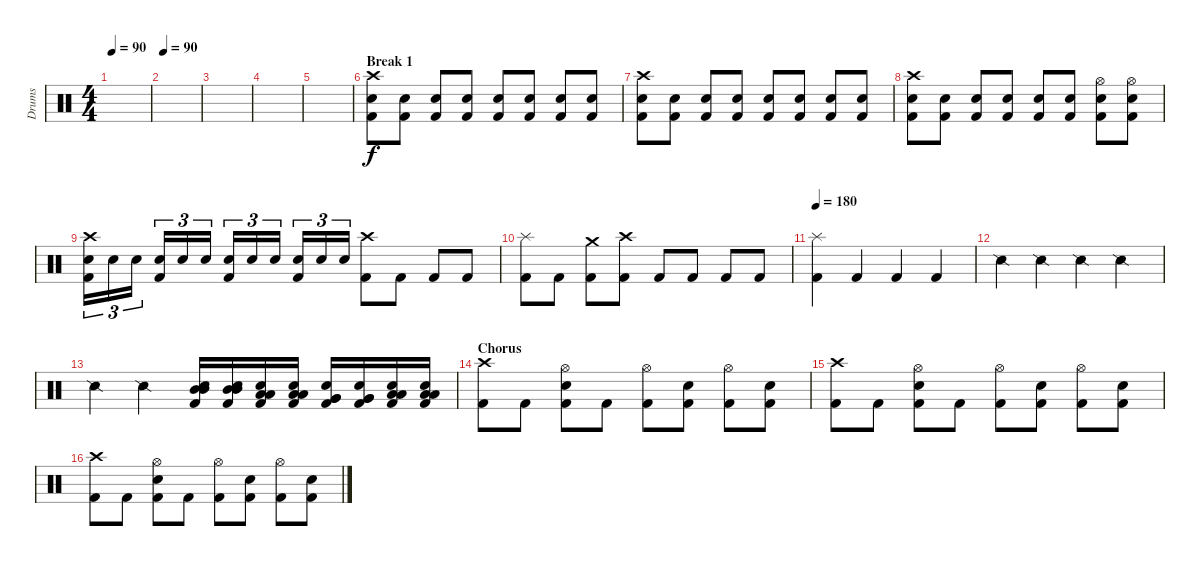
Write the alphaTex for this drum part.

\track ("Drums" "Drums") {instrument percussion}
\staff {score}
\articulation defaults
\ts (4 4)
\tempo 90
\clef neutral
\ks c
|
\tempo 90
|
|
|
|
\section ("" "Break 1")
("Crash high (hit)" "Kick (hit) 2" "Electric Snare (hit)").8 ("Kick (hit) 2" "Electric Snare (hit)").8 ("Kick (hit) 2" "Electric Snare (hit)").8 ("Kick (hit) 2" "Electric Snare (hit)").8 ("Kick (hit) 2" "Electric Snare (hit)").8 ("Kick (hit) 2" "Electric Snare (hit)").8 ("Kick (hit) 2" "Electric Snare (hit)").8 ("Kick (hit) 2" "Electric Snare (hit)").8 |
("Crash high (hit)" "Kick (hit) 2" "Electric Snare (hit)").8 ("Kick (hit) 2" "Electric Snare (hit)").8 ("Kick (hit) 2" "Electric Snare (hit)").8 ("Kick (hit) 2" "Electric Snare (hit)").8 ("Kick (hit) 2" "Electric Snare (hit)").8 ("Kick (hit) 2" "Electric Snare (hit)").8 ("Kick (hit) 2" "Electric Snare (hit)").8 ("Kick (hit) 2" "Electric Snare (hit)").8 |
("Crash high (hit)" "Kick (hit) 2" "Electric Snare (hit)").8 ("Kick (hit) 2" "Electric Snare (hit)").8 ("Kick (hit) 2" "Electric Snare (hit)").8 ("Kick (hit) 2" "Electric Snare (hit)").8 ("Kick (hit) 2" "Electric Snare (hit)").8 ("Kick (hit) 2" "Electric Snare (hit)").8 ("Hi-Hat (open)" "Kick (hit) 2" "Electric Snare (hit)").8 ("Hi-Hat (open)" "Kick (hit) 2" "Electric Snare (hit)").8 |
("Crash high (hit)" "Kick (hit) 2" "Electric Snare (hit)").16{tu (3 2)} "Electric Snare (hit)".16{tu (3 2)} "Electric Snare (hit)".16{tu (3 2)} ("Kick (hit) 2" "Electric Snare (hit)").16{tu (3 2)} "Electric Snare (hit)".16{tu (3 2)} "Electric Snare (hit)".16{tu (3 2)} ("Kick (hit) 2" "Electric Snare (hit)").16{tu (3 2)} "Electric Snare (hit)".16{tu (3 2)} "Electric Snare (hit)".16{tu (3 2)} ("Kick (hit) 2" "Electric Snare (hit)").16{tu (3 2)} "Electric Snare (hit)".16{tu (3 2)} "Electric Snare (hit)".16{tu (3 2)} ("Crash high (hit)" "Kick (hit) 2").8 "Kick (hit) 2".8 "Kick (hit) 2".8 "Kick (hit) 2".8 |
("Splash (hit)" "Kick (hit) 2").8 "Kick (hit) 2".8 ("Crash medium (hit)" "Kick (hit) 2").8 ("Crash high (hit)" "Kick (hit) 2").8 "Kick (hit) 2".8 "Kick (hit) 2".8 "Kick (hit) 2".8 "Kick (hit) 2".8 |
\tempo 180
("Splash (hit)" "Kick (hit) 2").4 "Kick (hit) 2".4 "Kick (hit) 2".4 "Kick (hit) 2".4 |
"Snare (side stick) 2".4 "Snare (side stick) 2".4 "Snare (side stick) 2".4 "Snare (side stick) 2".4 |
"Snare (side stick) 2".4 "Snare (side stick) 2".4 ("Mid Tom (hit)" "Mid Tom (hit)" "Electric Snare (hit)" "Kick (hit) 2").16 ("Mid Tom (hit)" "Mid Tom (hit)" "Electric Snare (hit)" "Kick (hit) 2").16 ("Low Tom (hit)" "Low Tom (hit)" "Electric Snare (hit)" "Kick (hit) 2").16 ("Low Tom (hit)" "Low Tom (hit)" "Electric Snare (hit)" "Kick (hit) 2").16 ("Very Low Tom (hit)" "Very Low Tom (hit)" "Electric Snare (hit)" "Kick (hit) 2").16 ("Very Low Tom (hit)" "Very Low Tom (hit)" "Electric Snare (hit)" "Kick (hit) 2").16 ("Low Floor Tom (hit)" "Low Floor Tom (hit)" "Electric Snare (hit)" "Kick (hit) 2").16 ("Low Floor Tom (hit)" "Low Floor Tom (hit)" "Electric Snare (hit)" "Kick (hit) 2").16 |
\section ("" "Chorus")
("Crash high (hit)" "Kick (hit) 2").8 "Kick (hit) 2".8 ("Hi-Hat (open)" "Electric Snare (hit)" "Kick (hit) 2").8 "Kick (hit) 2".8 ("Hi-Hat (open)" "Kick (hit) 2").8 ("Electric Snare (hit)" "Kick (hit) 2").8 ("Hi-Hat (open)" "Kick (hit) 2").8 ("Electric Snare (hit)" "Kick (hit) 2").8 |
("Crash high (hit)" "Kick (hit) 2").8 "Kick (hit) 2".8 ("Hi-Hat (open)" "Electric Snare (hit)" "Kick (hit) 2").8 "Kick (hit) 2".8 ("Hi-Hat (open)" "Kick (hit) 2").8 ("Electric Snare (hit)" "Kick (hit) 2").8 ("Hi-Hat (open)" "Kick (hit) 2").8 ("Electric Snare (hit)" "Kick (hit) 2").8 |
("Crash high (hit)" "Kick (hit) 2").8 "Kick (hit) 2".8 ("Hi-Hat (open)" "Electric Snare (hit)" "Kick (hit) 2").8 "Kick (hit) 2".8 ("Hi-Hat (open)" "Kick (hit) 2").8 ("Electric Snare (hit)" "Kick (hit) 2").8 ("Hi-Hat (open)" "Kick (hit) 2").8 ("Electric Snare (hit)" "Kick (hit) 2").8
